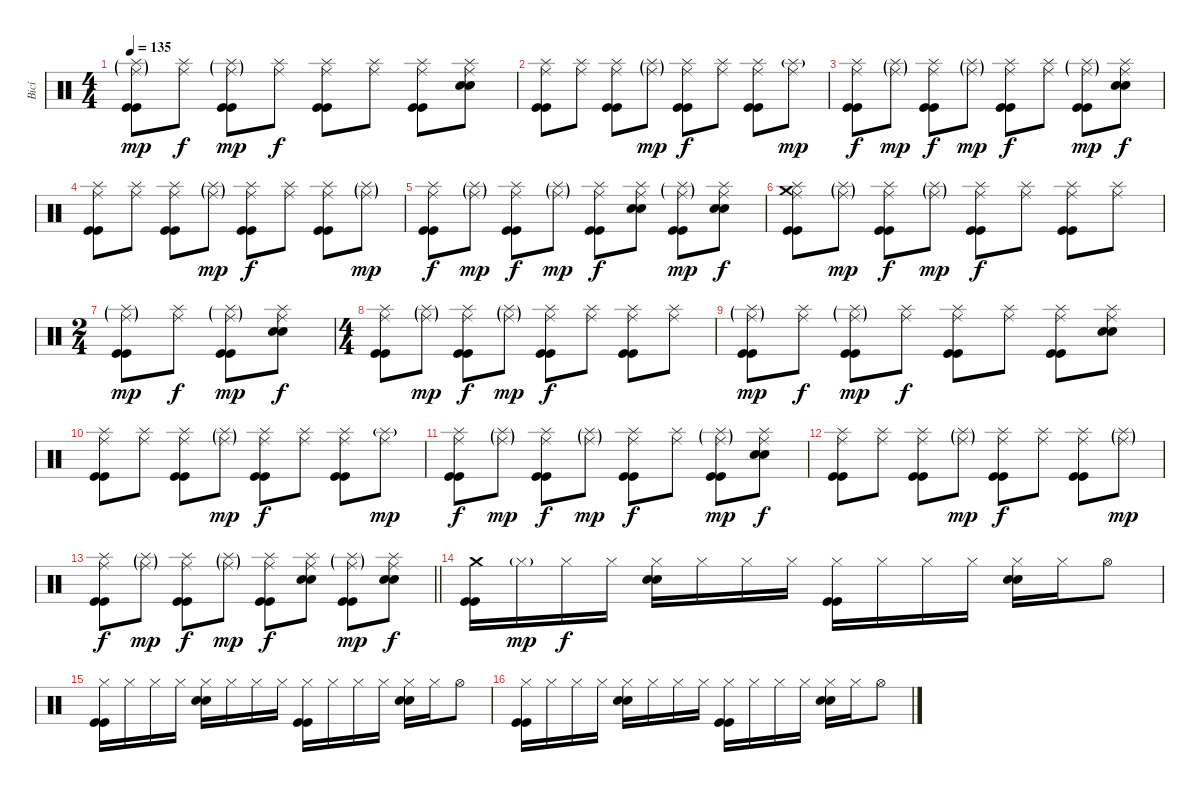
\track ("Bicí" "Bicí") {instrument percussion}
\staff {score}
\articulation defaults
\ts (4 4)
\tempo 135
\clef neutral
\ks c
("Splash (hit)"{g} "Ride (middle)"{g} "Kick (hit)" "Kick (hit)").8{dy mp} ("Splash (hit)" "Ride (middle)").8{dy f} ("Splash (hit)"{g} "Ride (middle)"{g} "Kick (hit)" "Kick (hit)").8{dy mp} ("Splash (hit)" "Ride (middle)").8{dy f} ("Splash (hit)" "Ride (middle)" "Kick (hit)" "Kick (hit)").8 ("Splash (hit)" "Ride (middle)").8 ("Splash (hit)" "Ride (middle)" "Kick (hit)" "Kick (hit)").8 ("Splash (hit)" "Ride (middle)" "Electric Snare (hit)" "Electric Snare (hit)").8 |
("Splash (hit)" "Ride (middle)" "Kick (hit)" "Kick (hit)").8 ("Splash (hit)" "Ride (middle)").8 ("Splash (hit)" "Ride (middle)" "Kick (hit)" "Kick (hit)").8 ("Splash (hit)"{g} "Ride (middle)"{g}).8{dy mp} ("Splash (hit)" "Ride (middle)" "Kick (hit)" "Kick (hit)").8{dy f} ("Splash (hit)" "Ride (middle)").8 ("Splash (hit)" "Ride (middle)" "Kick (hit)" "Kick (hit)").8 ("Splash (hit)"{g} "Ride (middle)").8{dy mp} |
("Splash (hit)" "Ride (middle)" "Kick (hit)" "Kick (hit)").8{dy f} ("Splash (hit)"{g} "Ride (middle)"{g}).8{dy mp} ("Splash (hit)" "Ride (middle)" "Kick (hit)" "Kick (hit)").8{dy f} ("Splash (hit)"{g} "Ride (middle)"{g}).8{dy mp} ("Splash (hit)" "Ride (middle)" "Kick (hit)" "Kick (hit)").8{dy f} ("Splash (hit)" "Ride (middle)").8 ("Splash (hit)"{g} "Ride (middle)"{g} "Kick (hit)" "Kick (hit)").8{dy mp} ("Splash (hit)" "Ride (middle)" "Electric Snare (hit)" "Electric Snare (hit)").8{dy f} |
("Splash (hit)" "Ride (middle)" "Kick (hit)" "Kick (hit)").8 ("Splash (hit)" "Ride (middle)").8 ("Splash (hit)" "Ride (middle)" "Kick (hit)" "Kick (hit)").8 ("Splash (hit)"{g} "Ride (middle)"{g}).8{dy mp} ("Splash (hit)" "Ride (middle)" "Kick (hit)" "Kick (hit)").8{dy f} ("Splash (hit)" "Ride (middle)").8 ("Splash (hit)" "Ride (middle)" "Kick (hit)" "Kick (hit)").8 ("Splash (hit)"{g} "Ride (middle)"{g}).8{dy mp} |
("Splash (hit)" "Ride (middle)" "Kick (hit)" "Kick (hit)").8{dy f} ("Splash (hit)"{g} "Ride (middle)"{g}).8{dy mp} ("Splash (hit)" "Ride (middle)" "Kick (hit)" "Kick (hit)").8{dy f} ("Splash (hit)"{g} "Ride (middle)"{g}).8{dy mp} ("Splash (hit)" "Ride (middle)" "Kick (hit)" "Kick (hit)").8{dy f} ("Splash (hit)" "Ride (middle)" "Electric Snare (hit)" "Electric Snare (hit)").8 ("Splash (hit)"{g} "Ride (middle)"{g} "Kick (hit)" "Kick (hit)").8{dy mp} ("Splash (hit)" "Ride (middle)" "Electric Snare (hit)" "Electric Snare (hit)").8{dy f} |
("Crash medium (hit)" "Splash (hit)" "Ride (middle)" "Kick (hit)" "Kick (hit)").8 ("Splash (hit)"{g} "Ride (middle)"{g}).8{dy mp} ("Splash (hit)" "Ride (middle)" "Kick (hit)" "Kick (hit)").8{dy f} ("Splash (hit)"{g} "Ride (middle)"{g}).8{dy mp} ("Splash (hit)" "Ride (middle)" "Kick (hit)" "Kick (hit)").8{dy f} ("Splash (hit)" "Ride (middle)").8 ("Splash (hit)" "Ride (middle)" "Kick (hit)" "Kick (hit)").8 ("Splash (hit)" "Ride (middle)").8 |
\ts (2 4)
("Splash (hit)"{g} "Ride (middle)"{g} "Kick (hit)" "Kick (hit)").8{dy mp} ("Splash (hit)" "Ride (middle)").8{dy f} ("Splash (hit)"{g} "Ride (middle)"{g} "Kick (hit)" "Kick (hit)").8{dy mp} ("Splash (hit)" "Ride (middle)" "Electric Snare (hit)" "Electric Snare (hit)").8{dy f} |
\ts (4 4)
("Splash (hit)" "Ride (middle)" "Kick (hit)" "Kick (hit)").8 ("Splash (hit)"{g} "Ride (middle)"{g}).8{dy mp} ("Splash (hit)" "Ride (middle)" "Kick (hit)" "Kick (hit)").8{dy f} ("Splash (hit)"{g} "Ride (middle)"{g}).8{dy mp} ("Splash (hit)" "Ride (middle)" "Kick (hit)" "Kick (hit)").8{dy f} ("Splash (hit)" "Ride (middle)").8 ("Splash (hit)" "Ride (middle)" "Kick (hit)" "Kick (hit)").8 ("Splash (hit)" "Ride (middle)").8 |
("Splash (hit)"{g} "Ride (middle)"{g} "Kick (hit)" "Kick (hit)").8{dy mp} ("Splash (hit)" "Ride (middle)").8{dy f} ("Splash (hit)"{g} "Ride (middle)"{g} "Kick (hit)" "Kick (hit)").8{dy mp} ("Splash (hit)" "Ride (middle)").8{dy f} ("Splash (hit)" "Ride (middle)" "Kick (hit)" "Kick (hit)").8 ("Splash (hit)" "Ride (middle)").8 ("Splash (hit)" "Ride (middle)" "Kick (hit)" "Kick (hit)").8 ("Splash (hit)" "Ride (middle)" "Electric Snare (hit)" "Electric Snare (hit)").8 |
("Splash (hit)" "Ride (middle)" "Kick (hit)" "Kick (hit)").8 ("Splash (hit)" "Ride (middle)").8 ("Splash (hit)" "Ride (middle)" "Kick (hit)" "Kick (hit)").8 ("Splash (hit)"{g} "Ride (middle)"{g}).8{dy mp} ("Splash (hit)" "Ride (middle)" "Kick (hit)" "Kick (hit)").8{dy f} ("Splash (hit)" "Ride (middle)").8 ("Splash (hit)" "Ride (middle)" "Kick (hit)" "Kick (hit)").8 ("Splash (hit)"{g} "Ride (middle)").8{dy mp} |
("Splash (hit)" "Ride (middle)" "Kick (hit)" "Kick (hit)").8{dy f} ("Splash (hit)"{g} "Ride (middle)"{g}).8{dy mp} ("Splash (hit)" "Ride (middle)" "Kick (hit)" "Kick (hit)").8{dy f} ("Splash (hit)"{g} "Ride (middle)"{g}).8{dy mp} ("Splash (hit)" "Ride (middle)" "Kick (hit)" "Kick (hit)").8{dy f} ("Splash (hit)" "Ride (middle)").8 ("Splash (hit)"{g} "Ride (middle)"{g} "Kick (hit)" "Kick (hit)").8{dy mp} ("Splash (hit)" "Ride (middle)" "Electric Snare (hit)" "Electric Snare (hit)").8{dy f} |
("Splash (hit)" "Ride (middle)" "Kick (hit)" "Kick (hit)").8 ("Splash (hit)" "Ride (middle)").8 ("Splash (hit)" "Ride (middle)" "Kick (hit)" "Kick (hit)").8 ("Splash (hit)"{g} "Ride (middle)"{g}).8{dy mp} ("Splash (hit)" "Ride (middle)" "Kick (hit)" "Kick (hit)").8{dy f} ("Splash (hit)" "Ride (middle)").8 ("Splash (hit)" "Ride (middle)" "Kick (hit)" "Kick (hit)").8 ("Splash (hit)"{g} "Ride (middle)"{g}).8{dy mp} |
\barLineRight lightlight
("Splash (hit)" "Ride (middle)" "Kick (hit)" "Kick (hit)").8{dy f} ("Splash (hit)"{g} "Ride (middle)"{g}).8{dy mp} ("Splash (hit)" "Ride (middle)" "Kick (hit)" "Kick (hit)").8{dy f} ("Splash (hit)"{g} "Ride (middle)"{g}).8{dy mp} ("Splash (hit)" "Ride (middle)" "Kick (hit)" "Kick (hit)").8{dy f} ("Splash (hit)" "Ride (middle)" "Electric Snare (hit)" "Electric Snare (hit)").8 ("Splash (hit)"{g} "Ride (middle)"{g} "Kick (hit)" "Kick (hit)").8{dy mp} ("Splash (hit)" "Ride (middle)" "Electric Snare (hit)" "Electric Snare (hit)").8{dy f} |
\section ("" "")
("Crash medium (hit)" "Kick (hit)" "Kick (hit)").16 "Hi-Hat (closed)"{g}.16{dy mp} "Hi-Hat (closed)".16{dy f} "Hi-Hat (closed)".16 ("Hi-Hat (closed)" "Electric Snare (hit)" "Electric Snare (hit)").16 "Hi-Hat (closed)".16 "Hi-Hat (closed)".16 "Hi-Hat (closed)".16 ("Hi-Hat (closed)" "Kick (hit)" "Kick (hit)").16 "Hi-Hat (closed)".16 "Hi-Hat (closed)".16 "Hi-Hat (closed)".16 ("Hi-Hat (closed)" "Electric Snare (hit)" "Electric Snare (hit)").16 "Hi-Hat (closed)".16 "Hi-Hat (open)".8 |
("Hi-Hat (closed)" "Kick (hit)" "Kick (hit)").16 "Hi-Hat (closed)".16 "Hi-Hat (closed)".16 "Hi-Hat (closed)".16 ("Hi-Hat (closed)" "Electric Snare (hit)" "Electric Snare (hit)").16 "Hi-Hat (closed)".16 "Hi-Hat (closed)".16 "Hi-Hat (closed)".16 ("Hi-Hat (closed)" "Kick (hit)" "Kick (hit)").16 "Hi-Hat (closed)".16 "Hi-Hat (closed)".16 "Hi-Hat (closed)".16 ("Hi-Hat (closed)" "Electric Snare (hit)" "Electric Snare (hit)").16 "Hi-Hat (closed)".16 "Hi-Hat (open)".8 |
("Hi-Hat (closed)" "Kick (hit)" "Kick (hit)").16 "Hi-Hat (closed)".16 "Hi-Hat (closed)".16 "Hi-Hat (closed)".16 ("Hi-Hat (closed)" "Electric Snare (hit)" "Electric Snare (hit)").16 "Hi-Hat (closed)".16 "Hi-Hat (closed)".16 "Hi-Hat (closed)".16 ("Hi-Hat (closed)" "Kick (hit)" "Kick (hit)").16 "Hi-Hat (closed)".16 "Hi-Hat (closed)".16 "Hi-Hat (closed)".16 ("Hi-Hat (closed)" "Electric Snare (hit)" "Electric Snare (hit)").16 "Hi-Hat (closed)".16 "Hi-Hat (open)".8
